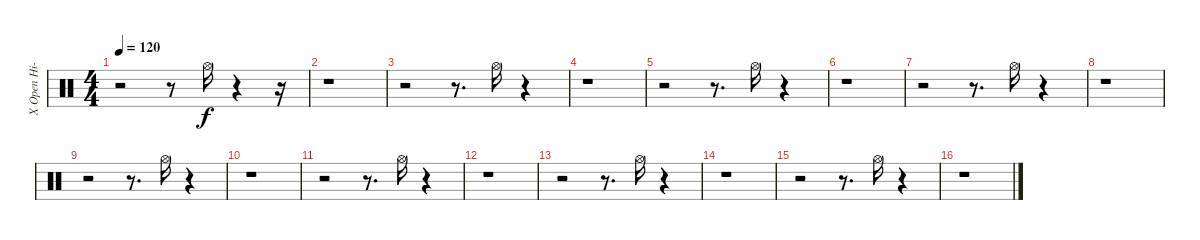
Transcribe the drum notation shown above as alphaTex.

\track ("X Open Hi-Hat       " "X Open Hi-") {instrument percussion}
\staff {score}
\articulation defaults
\ts (4 4)
\tempo 120
\clef neutral
\ks c
r.2{dy f} r.8 "Hi-Hat (open)".16 r.4 r.16 |
r.1 |
r.2 r.8{d} "Hi-Hat (open)".16 r.4 |
r.1 |
r.2 r.8{d} "Hi-Hat (open)".16 r.4 |
r.1 |
r.2 r.8{d} "Hi-Hat (open)".16 r.4 |
r.1 |
r.2 r.8{d} "Hi-Hat (open)".16 r.4 |
r.1 |
r.2 r.8{d} "Hi-Hat (open)".16 r.4 |
r.1 |
r.2 r.8{d} "Hi-Hat (open)".16 r.4 |
r.1 |
r.2 r.8{d} "Hi-Hat (open)".16 r.4 |
r.1
